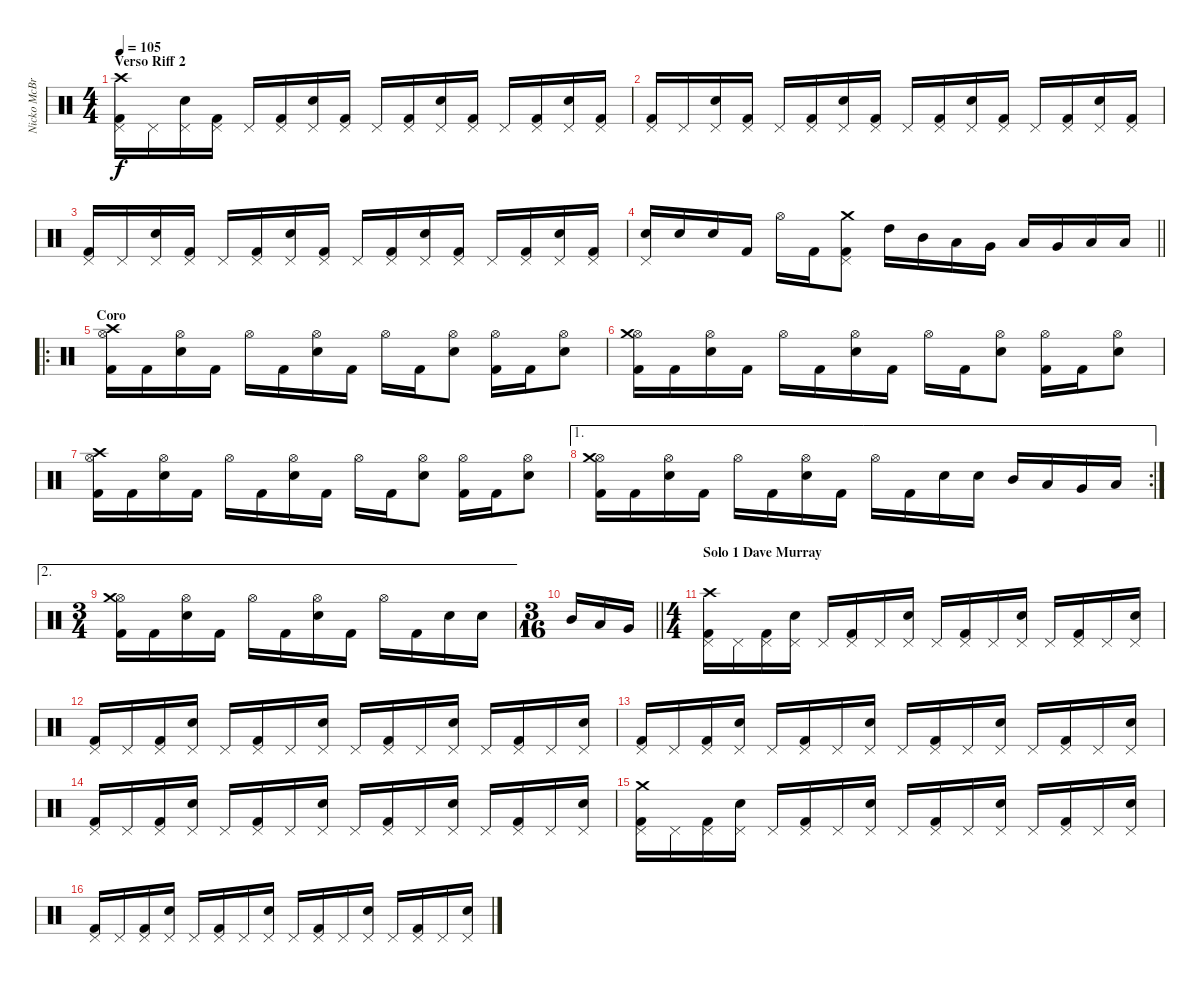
\track ("Nicko McBrain" "Nicko McBr") {instrument percussion}
\staff {score}
\articulation defaults
\ts (4 4)
\section ("" "Verso Riff 2")
\tempo 105
\clef neutral
\ks c
("Kick (hit) 2" "Pedal Hi-Hat (hit)" "Crash high (hit)").16{dy f} "Pedal Hi-Hat (hit)".16 ("Snare (hit) 2" "Pedal Hi-Hat (hit)").16 ("Kick (hit) 2" "Pedal Hi-Hat (hit)").16 "Pedal Hi-Hat (hit)".16 ("Kick (hit) 2" "Pedal Hi-Hat (hit)").16 ("Snare (hit) 2" "Pedal Hi-Hat (hit)").16 ("Kick (hit) 2" "Pedal Hi-Hat (hit)").16 "Pedal Hi-Hat (hit)".16 ("Kick (hit) 2" "Pedal Hi-Hat (hit)").16 ("Snare (hit) 2" "Pedal Hi-Hat (hit)").16 ("Kick (hit) 2" "Pedal Hi-Hat (hit)").16 "Pedal Hi-Hat (hit)".16 ("Kick (hit) 2" "Pedal Hi-Hat (hit)").16 ("Snare (hit) 2" "Pedal Hi-Hat (hit)").16 ("Kick (hit) 2" "Pedal Hi-Hat (hit)").16 |
("Kick (hit) 2" "Pedal Hi-Hat (hit)").16 "Pedal Hi-Hat (hit)".16 ("Snare (hit) 2" "Pedal Hi-Hat (hit)").16 ("Kick (hit) 2" "Pedal Hi-Hat (hit)").16 "Pedal Hi-Hat (hit)".16 ("Kick (hit) 2" "Pedal Hi-Hat (hit)").16 ("Snare (hit) 2" "Pedal Hi-Hat (hit)").16 ("Kick (hit) 2" "Pedal Hi-Hat (hit)").16 "Pedal Hi-Hat (hit)".16 ("Kick (hit) 2" "Pedal Hi-Hat (hit)").16 ("Snare (hit) 2" "Pedal Hi-Hat (hit)").16 ("Kick (hit) 2" "Pedal Hi-Hat (hit)").16 "Pedal Hi-Hat (hit)".16 ("Kick (hit) 2" "Pedal Hi-Hat (hit)").16 ("Snare (hit) 2" "Pedal Hi-Hat (hit)").16 ("Kick (hit) 2" "Pedal Hi-Hat (hit)").16 |
("Kick (hit) 2" "Pedal Hi-Hat (hit)").16 "Pedal Hi-Hat (hit)".16 ("Snare (hit) 2" "Pedal Hi-Hat (hit)").16 ("Kick (hit) 2" "Pedal Hi-Hat (hit)").16 "Pedal Hi-Hat (hit)".16 ("Kick (hit) 2" "Pedal Hi-Hat (hit)").16 ("Snare (hit) 2" "Pedal Hi-Hat (hit)").16 ("Kick (hit) 2" "Pedal Hi-Hat (hit)").16 "Pedal Hi-Hat (hit)".16 ("Kick (hit) 2" "Pedal Hi-Hat (hit)").16 ("Snare (hit) 2" "Pedal Hi-Hat (hit)").16 ("Kick (hit) 2" "Pedal Hi-Hat (hit)").16 "Pedal Hi-Hat (hit)".16 ("Kick (hit) 2" "Pedal Hi-Hat (hit)").16 ("Snare (hit) 2" "Pedal Hi-Hat (hit)").16 ("Kick (hit) 2" "Pedal Hi-Hat (hit)").16 |
\barLineRight lightlight
("Snare (hit) 2" "Pedal Hi-Hat (hit)").16 "Snare (hit) 2".16 "Snare (hit) 2".16 "Kick (hit) 2".16 "Hi-Hat (open)".16 "Kick (hit) 2".16 ("Kick (hit) 2" "Pedal Hi-Hat (hit)" "Crash medium (hit)").8 "High Tom (hit)".16 "Mid Tom (hit)".16 "Low Tom (hit)".16 "Very Low Tom (hit)".16 "Low Tom (hit)".16 "Very Low Tom (hit)".16 "Low Floor Tom (hit)".16 "Low Floor Tom (hit)".16 |
\ro
\section ("" "Coro")
("Kick (hit) 2" "Hi-Hat (open)" "Crash high (hit)").16 "Kick (hit) 2".16 ("Snare (hit) 2" "Hi-Hat (open)").16 "Kick (hit) 2".16 "Hi-Hat (open)".16 "Kick (hit) 2".16 ("Snare (hit) 2" "Hi-Hat (open)").16 "Kick (hit) 2".16 "Hi-Hat (open)".16 "Kick (hit) 2".16 ("Snare (hit) 2" "Hi-Hat (open)").8 ("Kick (hit) 2" "Hi-Hat (open)").16 "Kick (hit) 2".16 ("Snare (hit) 2" "Hi-Hat (open)").8 |
("Kick (hit) 2" "Hi-Hat (open)" "Crash medium (hit)").16 "Kick (hit) 2".16 ("Snare (hit) 2" "Hi-Hat (open)").16 "Kick (hit) 2".16 "Hi-Hat (open)".16 "Kick (hit) 2".16 ("Snare (hit) 2" "Hi-Hat (open)").16 "Kick (hit) 2".16 "Hi-Hat (open)".16 "Kick (hit) 2".16 ("Snare (hit) 2" "Hi-Hat (open)").8 ("Kick (hit) 2" "Hi-Hat (open)").16 "Kick (hit) 2".16 ("Snare (hit) 2" "Hi-Hat (open)").8 |
("Kick (hit) 2" "Hi-Hat (open)" "Crash high (hit)").16 "Kick (hit) 2".16 ("Snare (hit) 2" "Hi-Hat (open)").16 "Kick (hit) 2".16 "Hi-Hat (open)".16 "Kick (hit) 2".16 ("Snare (hit) 2" "Hi-Hat (open)").16 "Kick (hit) 2".16 "Hi-Hat (open)".16 "Kick (hit) 2".16 ("Snare (hit) 2" "Hi-Hat (open)").8 ("Kick (hit) 2" "Hi-Hat (open)").16 "Kick (hit) 2".16 ("Snare (hit) 2" "Hi-Hat (open)").8 |
\ae 1
\rc 2
("Kick (hit) 2" "Hi-Hat (open)" "Crash medium (hit)").16 "Kick (hit) 2".16 ("Snare (hit) 2" "Hi-Hat (open)").16 "Kick (hit) 2".16 "Hi-Hat (open)".16 "Kick (hit) 2".16 ("Snare (hit) 2" "Hi-Hat (open)").16 "Kick (hit) 2".16 "Hi-Hat (open)".16 "Kick (hit) 2".16 "Snare (hit) 2".16 "Snare (hit) 2".16 "Mid Tom (hit)".16 "Low Tom (hit)".16 "Very Low Tom (hit)".16 "Low Floor Tom (hit)".16 |
\ae 2
\ts (3 4)
("Kick (hit) 2" "Hi-Hat (open)" "Crash medium (hit)").16 "Kick (hit) 2".16 ("Snare (hit) 2" "Hi-Hat (open)").16 "Kick (hit) 2".16 "Hi-Hat (open)".16 "Kick (hit) 2".16 ("Snare (hit) 2" "Hi-Hat (open)").16 "Kick (hit) 2".16 "Hi-Hat (open)".16 "Kick (hit) 2".16 "Snare (hit) 2".16 "Snare (hit) 2".16 |
\ts (3 16)
\barLineRight lightlight "Mid Tom (hit)".16 "Low Tom (hit)".16 "Very Low Tom (hit)".16
|
\ts (4 4)
\section ("" "Solo 1 Dave Murray")
("Kick (hit) 2" "Pedal Hi-Hat (hit)" "Crash high (hit)").16 "Pedal Hi-Hat (hit)".16 ("Kick (hit) 2" "Pedal Hi-Hat (hit)").16 ("Snare (hit) 2" "Pedal Hi-Hat (hit)").16 "Pedal Hi-Hat (hit)".16 ("Kick (hit) 2" "Pedal Hi-Hat (hit)").16 "Pedal Hi-Hat (hit)".16 ("Snare (hit) 2" "Pedal Hi-Hat (hit)").16 "Pedal Hi-Hat (hit)".16 ("Kick (hit) 2" "Pedal Hi-Hat (hit)").16 "Pedal Hi-Hat (hit)".16 ("Snare (hit) 2" "Pedal Hi-Hat (hit)").16 "Pedal Hi-Hat (hit)".16 ("Kick (hit) 2" "Pedal Hi-Hat (hit)").16 "Pedal Hi-Hat (hit)".16 ("Snare (hit) 2" "Pedal Hi-Hat (hit)").16 |
("Kick (hit) 2" "Pedal Hi-Hat (hit)").16 "Pedal Hi-Hat (hit)".16 ("Kick (hit) 2" "Pedal Hi-Hat (hit)").16 ("Snare (hit) 2" "Pedal Hi-Hat (hit)").16 "Pedal Hi-Hat (hit)".16 ("Kick (hit) 2" "Pedal Hi-Hat (hit)").16 "Pedal Hi-Hat (hit)".16 ("Snare (hit) 2" "Pedal Hi-Hat (hit)").16 "Pedal Hi-Hat (hit)".16 ("Kick (hit) 2" "Pedal Hi-Hat (hit)").16 "Pedal Hi-Hat (hit)".16 ("Snare (hit) 2" "Pedal Hi-Hat (hit)").16 "Pedal Hi-Hat (hit)".16 ("Kick (hit) 2" "Pedal Hi-Hat (hit)").16 "Pedal Hi-Hat (hit)".16 ("Snare (hit) 2" "Pedal Hi-Hat (hit)").16 |
("Kick (hit) 2" "Pedal Hi-Hat (hit)").16 "Pedal Hi-Hat (hit)".16 ("Kick (hit) 2" "Pedal Hi-Hat (hit)").16 ("Snare (hit) 2" "Pedal Hi-Hat (hit)").16 "Pedal Hi-Hat (hit)".16 ("Kick (hit) 2" "Pedal Hi-Hat (hit)").16 "Pedal Hi-Hat (hit)".16 ("Snare (hit) 2" "Pedal Hi-Hat (hit)").16 "Pedal Hi-Hat (hit)".16 ("Kick (hit) 2" "Pedal Hi-Hat (hit)").16 "Pedal Hi-Hat (hit)".16 ("Snare (hit) 2" "Pedal Hi-Hat (hit)").16 "Pedal Hi-Hat (hit)".16 ("Kick (hit) 2" "Pedal Hi-Hat (hit)").16 "Pedal Hi-Hat (hit)".16 ("Snare (hit) 2" "Pedal Hi-Hat (hit)").16 |
("Kick (hit) 2" "Pedal Hi-Hat (hit)").16 "Pedal Hi-Hat (hit)".16 ("Kick (hit) 2" "Pedal Hi-Hat (hit)").16 ("Snare (hit) 2" "Pedal Hi-Hat (hit)").16 "Pedal Hi-Hat (hit)".16 ("Kick (hit) 2" "Pedal Hi-Hat (hit)").16 "Pedal Hi-Hat (hit)".16 ("Snare (hit) 2" "Pedal Hi-Hat (hit)").16 "Pedal Hi-Hat (hit)".16 ("Kick (hit) 2" "Pedal Hi-Hat (hit)").16 "Pedal Hi-Hat (hit)".16 ("Snare (hit) 2" "Pedal Hi-Hat (hit)").16 "Pedal Hi-Hat (hit)".16 ("Kick (hit) 2" "Pedal Hi-Hat (hit)").16 "Pedal Hi-Hat (hit)".16 ("Snare (hit) 2" "Pedal Hi-Hat (hit)").16 |
("Kick (hit) 2" "Pedal Hi-Hat (hit)" "Crash medium (hit)").16 "Pedal Hi-Hat (hit)".16 ("Kick (hit) 2" "Pedal Hi-Hat (hit)").16 ("Snare (hit) 2" "Pedal Hi-Hat (hit)").16 "Pedal Hi-Hat (hit)".16 ("Kick (hit) 2" "Pedal Hi-Hat (hit)").16 "Pedal Hi-Hat (hit)".16 ("Snare (hit) 2" "Pedal Hi-Hat (hit)").16 "Pedal Hi-Hat (hit)".16 ("Kick (hit) 2" "Pedal Hi-Hat (hit)").16 "Pedal Hi-Hat (hit)".16 ("Snare (hit) 2" "Pedal Hi-Hat (hit)").16 "Pedal Hi-Hat (hit)".16 ("Kick (hit) 2" "Pedal Hi-Hat (hit)").16 "Pedal Hi-Hat (hit)".16 ("Snare (hit) 2" "Pedal Hi-Hat (hit)").16 |
("Kick (hit) 2" "Pedal Hi-Hat (hit)").16 "Pedal Hi-Hat (hit)".16 ("Kick (hit) 2" "Pedal Hi-Hat (hit)").16 ("Snare (hit) 2" "Pedal Hi-Hat (hit)").16 "Pedal Hi-Hat (hit)".16 ("Kick (hit) 2" "Pedal Hi-Hat (hit)").16 "Pedal Hi-Hat (hit)".16 ("Snare (hit) 2" "Pedal Hi-Hat (hit)").16 "Pedal Hi-Hat (hit)".16 ("Kick (hit) 2" "Pedal Hi-Hat (hit)").16 "Pedal Hi-Hat (hit)".16 ("Snare (hit) 2" "Pedal Hi-Hat (hit)").16 "Pedal Hi-Hat (hit)".16 ("Kick (hit) 2" "Pedal Hi-Hat (hit)").16 "Pedal Hi-Hat (hit)".16 ("Snare (hit) 2" "Pedal Hi-Hat (hit)").16
